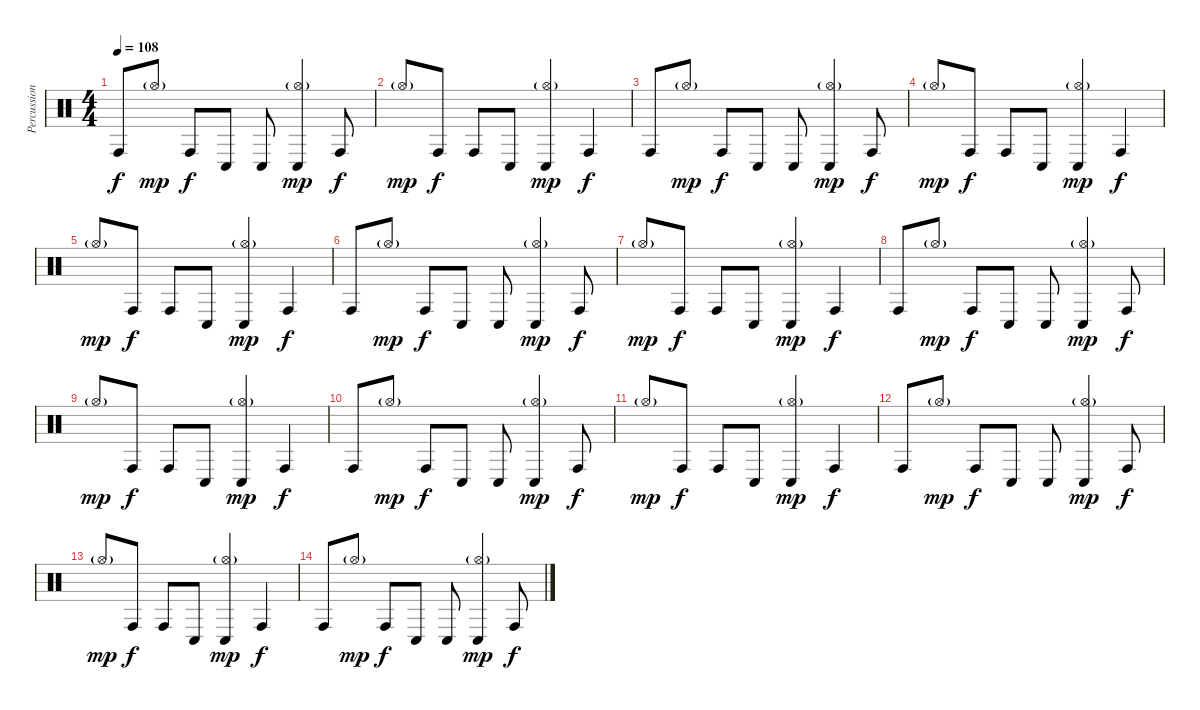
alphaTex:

\track ("Percussion" "Percussion") {instrument percussion}
\staff {score}
\articulation defaults
\ts (4 4)
\tempo 108
\clef neutral
\ks c "Conga high (hit)".8{dy f} "Hi-Hat (open)"{g}.8{dy mp} "Conga high (hit)".8{dy f} "Conga low (hit)".8 "Conga low (hit)".8
("Hi-Hat (open)"{g} "Conga low (hit)").4{dy mp} "Conga high (hit)".8{dy f} |
"Hi-Hat (open)"{g}.8{dy mp} "Conga high (hit)".8{dy f} "Conga high (hit)".8 "Conga low (hit)".8 ("Hi-Hat (open)"{g} "Conga low (hit)").4{dy mp} "Conga high (hit)".4{dy f} |
"Conga high (hit)".8 "Hi-Hat (open)"{g}.8{dy mp} "Conga high (hit)".8{dy f} "Conga low (hit)".8 "Conga low (hit)".8 ("Hi-Hat (open)"{g} "Conga low (hit)").4{dy mp} "Conga high (hit)".8{dy f} |
"Hi-Hat (open)"{g}.8{dy mp} "Conga high (hit)".8{dy f} "Conga high (hit)".8 "Conga low (hit)".8 ("Hi-Hat (open)"{g} "Conga low (hit)").4{dy mp} "Conga high (hit)".4{dy f} |
"Hi-Hat (open)"{g}.8{dy mp} "Conga high (hit)".8{dy f} "Conga high (hit)".8 "Conga low (hit)".8 ("Hi-Hat (open)"{g} "Conga low (hit)").4{dy mp} "Conga high (hit)".4{dy f} |
"Conga high (hit)".8 "Hi-Hat (open)"{g}.8{dy mp} "Conga high (hit)".8{dy f} "Conga low (hit)".8 "Conga low (hit)".8 ("Hi-Hat (open)"{g} "Conga low (hit)").4{dy mp} "Conga high (hit)".8{dy f} |
"Hi-Hat (open)"{g}.8{dy mp} "Conga high (hit)".8{dy f} "Conga high (hit)".8 "Conga low (hit)".8 ("Hi-Hat (open)"{g} "Conga low (hit)").4{dy mp} "Conga high (hit)".4{dy f} |
"Conga high (hit)".8 "Hi-Hat (open)"{g}.8{dy mp} "Conga high (hit)".8{dy f} "Conga low (hit)".8 "Conga low (hit)".8 ("Hi-Hat (open)"{g} "Conga low (hit)").4{dy mp} "Conga high (hit)".8{dy f} |
"Hi-Hat (open)"{g}.8{dy mp} "Conga high (hit)".8{dy f} "Conga high (hit)".8 "Conga low (hit)".8 ("Hi-Hat (open)"{g} "Conga low (hit)").4{dy mp} "Conga high (hit)".4{dy f} |
"Conga high (hit)".8 "Hi-Hat (open)"{g}.8{dy mp} "Conga high (hit)".8{dy f} "Conga low (hit)".8 "Conga low (hit)".8 ("Hi-Hat (open)"{g} "Conga low (hit)").4{dy mp} "Conga high (hit)".8{dy f} |
"Hi-Hat (open)"{g}.8{dy mp} "Conga high (hit)".8{dy f} "Conga high (hit)".8 "Conga low (hit)".8 ("Hi-Hat (open)"{g} "Conga low (hit)").4{dy mp} "Conga high (hit)".4{dy f} |
"Conga high (hit)".8 "Hi-Hat (open)"{g}.8{dy mp} "Conga high (hit)".8{dy f} "Conga low (hit)".8 "Conga low (hit)".8 ("Hi-Hat (open)"{g} "Conga low (hit)").4{dy mp} "Conga high (hit)".8{dy f} |
"Hi-Hat (open)"{g}.8{dy mp} "Conga high (hit)".8{dy f} "Conga high (hit)".8 "Conga low (hit)".8 ("Hi-Hat (open)"{g} "Conga low (hit)").4{dy mp} "Conga high (hit)".4{dy f} |
"Conga high (hit)".8 "Hi-Hat (open)"{g}.8{dy mp} "Conga high (hit)".8{dy f} "Conga low (hit)".8 "Conga low (hit)".8 ("Hi-Hat (open)"{g} "Conga low (hit)").4{dy mp} "Conga high (hit)".8{dy f}
